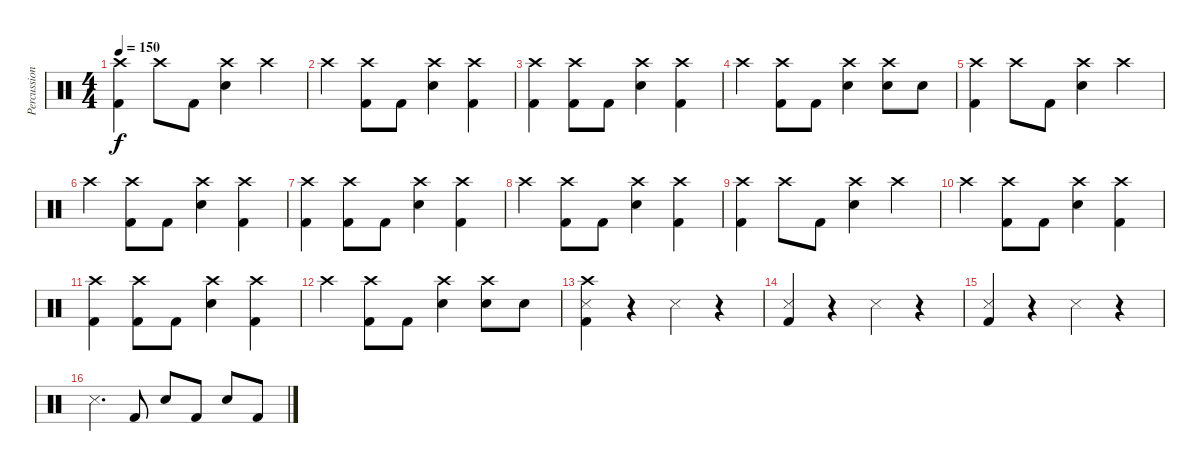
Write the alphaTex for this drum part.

\track ("Percussion" "Percussion") {instrument percussion}
\staff {score}
\articulation defaults
\ts (4 4)
\tempo 150
\clef neutral
\ks c
("Crash high (hit)" "Kick (hit) 2").4{dy f} "Crash high (hit)".8 "Kick (hit) 2".8 ("Crash high (hit)" "Snare (hit) 2").4 "Crash high (hit)".4 |
"Crash high (hit)".4 ("Crash high (hit)" "Kick (hit) 2").8 "Kick (hit) 2".8 ("Crash high (hit)" "Snare (hit) 2").4 ("Crash high (hit)" "Kick (hit) 2").4 |
("Crash high (hit)" "Kick (hit) 2").4 ("Crash high (hit)" "Kick (hit) 2").8 "Kick (hit) 2".8 ("Crash high (hit)" "Snare (hit) 2").4 ("Crash high (hit)" "Kick (hit) 2").4 |
"Crash high (hit)".4 ("Crash high (hit)" "Kick (hit) 2").8 "Kick (hit) 2".8 ("Crash high (hit)" "Snare (hit) 2").4 ("Crash high (hit)" "Snare (hit) 2").8 "Snare (hit) 2".8 |
("Crash high (hit)" "Kick (hit) 2").4 "Crash high (hit)".8 "Kick (hit) 2".8 ("Crash high (hit)" "Snare (hit) 2").4 "Crash high (hit)".4 |
"Crash high (hit)".4 ("Crash high (hit)" "Kick (hit) 2").8 "Kick (hit) 2".8 ("Crash high (hit)" "Snare (hit) 2").4 ("Crash high (hit)" "Kick (hit) 2").4 |
("Crash high (hit)" "Kick (hit) 2").4 ("Crash high (hit)" "Kick (hit) 2").8 "Kick (hit) 2".8 ("Crash high (hit)" "Snare (hit) 2").4 ("Crash high (hit)" "Kick (hit) 2").4 |
"Crash high (hit)".4 ("Crash high (hit)" "Kick (hit) 2").8 "Kick (hit) 2".8 ("Crash high (hit)" "Snare (hit) 2").4 ("Crash high (hit)" "Kick (hit) 2").4 |
("Crash high (hit)" "Kick (hit) 2").4 "Crash high (hit)".8 "Kick (hit) 2".8 ("Crash high (hit)" "Snare (hit) 2").4 "Crash high (hit)".4 |
"Crash high (hit)".4 ("Crash high (hit)" "Kick (hit) 2").8 "Kick (hit) 2".8 ("Crash high (hit)" "Snare (hit) 2").4 ("Crash high (hit)" "Kick (hit) 2").4 |
("Crash high (hit)" "Kick (hit) 2").4 ("Crash high (hit)" "Kick (hit) 2").8 "Kick (hit) 2".8 ("Crash high (hit)" "Snare (hit) 2").4 ("Crash high (hit)" "Kick (hit) 2").4 |
"Crash high (hit)".4 ("Crash high (hit)" "Kick (hit) 2").8 "Kick (hit) 2".8 ("Crash high (hit)" "Snare (hit) 2").4 ("Crash high (hit)" "Snare (hit) 2").8 "Snare (hit) 2".8 |
("Crash high (hit)" "Snare (side stick) 3" "Kick (hit) 2").4 r.4 "Snare (side stick) 3".4 r.4 |
("Snare (side stick) 3" "Kick (hit) 2").4 r.4 "Snare (side stick) 3".4 r.4 |
("Snare (side stick) 3" "Kick (hit) 2").4 r.4 "Snare (side stick) 3".4 r.4 |
"Snare (side stick) 3".4{d} "Kick (hit) 2".8 "Snare (hit) 2".8 "Kick (hit) 2".8 "Snare (hit) 2".8 "Kick (hit) 2".8
